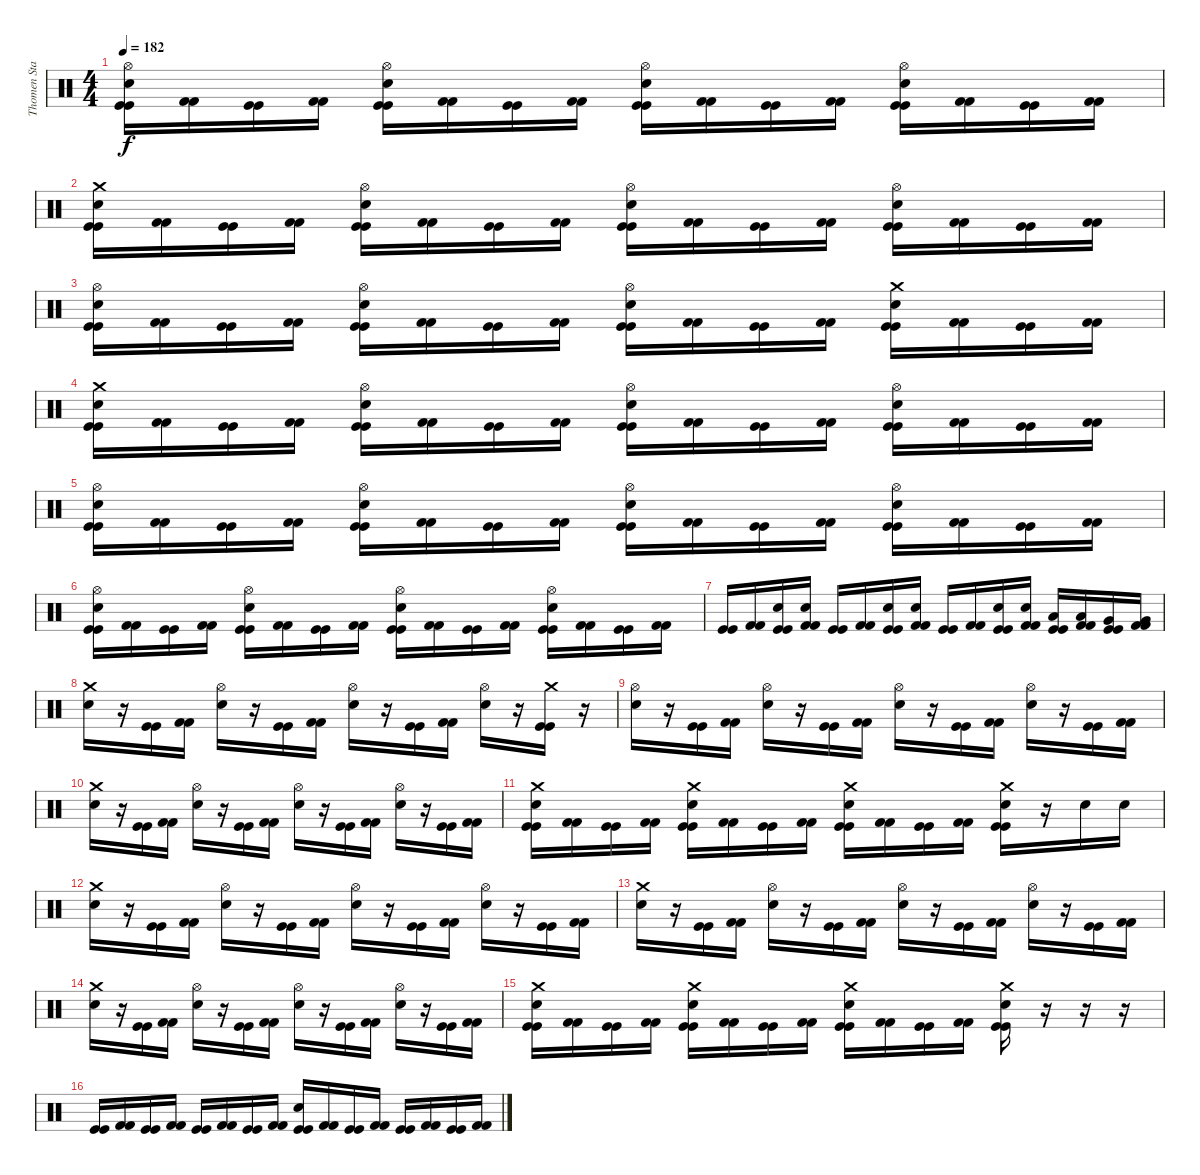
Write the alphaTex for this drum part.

\track ("Thomen Stauch" "Thomen Sta") {instrument percussion}
\staff {score}
\articulation defaults
\ts (4 4)
\tempo 182
\clef neutral
\ks c
("Hi-Hat (open)" "Snare (hit) 2" "Kick (hit)" "Kick (hit)").16{dy f} ("Kick (hit) 2" "Kick (hit) 2").16 ("Kick (hit)" "Kick (hit)").16 ("Kick (hit) 2" "Kick (hit) 2").16 ("Hi-Hat (open)" "Snare (hit) 2" "Kick (hit)" "Kick (hit)").16 ("Kick (hit) 2" "Kick (hit) 2").16 ("Kick (hit)" "Kick (hit)").16 ("Kick (hit) 2" "Kick (hit) 2").16 ("Hi-Hat (open)" "Snare (hit) 2" "Kick (hit)" "Kick (hit)").16 ("Kick (hit) 2" "Kick (hit) 2").16 ("Kick (hit)" "Kick (hit)").16 ("Kick (hit) 2" "Kick (hit) 2").16 ("Hi-Hat (open)" "Snare (hit) 2" "Kick (hit)" "Kick (hit)").16 ("Kick (hit) 2" "Kick (hit) 2").16 ("Kick (hit)" "Kick (hit)").16 ("Kick (hit) 2" "Kick (hit) 2").16 |
("Crash medium (hit)" "Snare (hit) 2" "Kick (hit)" "Kick (hit)").16 ("Kick (hit) 2" "Kick (hit) 2").16 ("Kick (hit)" "Kick (hit)").16 ("Kick (hit) 2" "Kick (hit) 2").16 ("Hi-Hat (open)" "Snare (hit) 2" "Kick (hit)" "Kick (hit)").16 ("Kick (hit) 2" "Kick (hit) 2").16 ("Kick (hit)" "Kick (hit)").16 ("Kick (hit) 2" "Kick (hit) 2").16 ("Hi-Hat (open)" "Snare (hit) 2" "Kick (hit)" "Kick (hit)").16 ("Kick (hit) 2" "Kick (hit) 2").16 ("Kick (hit)" "Kick (hit)").16 ("Kick (hit) 2" "Kick (hit) 2").16 ("Hi-Hat (open)" "Snare (hit) 2" "Kick (hit)" "Kick (hit)").16 ("Kick (hit) 2" "Kick (hit) 2").16 ("Kick (hit)" "Kick (hit)").16 ("Kick (hit) 2" "Kick (hit) 2").16 |
("Hi-Hat (open)" "Snare (hit) 2" "Kick (hit)" "Kick (hit)").16 ("Kick (hit) 2" "Kick (hit) 2").16 ("Kick (hit)" "Kick (hit)").16 ("Kick (hit) 2" "Kick (hit) 2").16 ("Hi-Hat (open)" "Snare (hit) 2" "Kick (hit)" "Kick (hit)").16 ("Kick (hit) 2" "Kick (hit) 2").16 ("Kick (hit)" "Kick (hit)").16 ("Kick (hit) 2" "Kick (hit) 2").16 ("Hi-Hat (open)" "Snare (hit) 2" "Kick (hit)" "Kick (hit)").16 ("Kick (hit) 2" "Kick (hit) 2").16 ("Kick (hit)" "Kick (hit)").16 ("Kick (hit) 2" "Kick (hit) 2").16 ("Crash medium (hit)" "Snare (hit) 2" "Kick (hit)" "Kick (hit)").16 ("Kick (hit) 2" "Kick (hit) 2").16 ("Kick (hit)" "Kick (hit)").16 ("Kick (hit) 2" "Kick (hit) 2").16 |
("Crash medium (hit)" "Snare (hit) 2" "Kick (hit)" "Kick (hit)").16 ("Kick (hit) 2" "Kick (hit) 2").16 ("Kick (hit)" "Kick (hit)").16 ("Kick (hit) 2" "Kick (hit) 2").16 ("Hi-Hat (open)" "Snare (hit) 2" "Kick (hit)" "Kick (hit)").16 ("Kick (hit) 2" "Kick (hit) 2").16 ("Kick (hit)" "Kick (hit)").16 ("Kick (hit) 2" "Kick (hit) 2").16 ("Hi-Hat (open)" "Snare (hit) 2" "Kick (hit)" "Kick (hit)").16 ("Kick (hit) 2" "Kick (hit) 2").16 ("Kick (hit)" "Kick (hit)").16 ("Kick (hit) 2" "Kick (hit) 2").16 ("Hi-Hat (open)" "Snare (hit) 2" "Kick (hit)" "Kick (hit)").16 ("Kick (hit) 2" "Kick (hit) 2").16 ("Kick (hit)" "Kick (hit)").16 ("Kick (hit) 2" "Kick (hit) 2").16 |
("Hi-Hat (open)" "Snare (hit) 2" "Kick (hit)" "Kick (hit)").16 ("Kick (hit) 2" "Kick (hit) 2").16 ("Kick (hit)" "Kick (hit)").16 ("Kick (hit) 2" "Kick (hit) 2").16 ("Hi-Hat (open)" "Snare (hit) 2" "Kick (hit)" "Kick (hit)").16 ("Kick (hit) 2" "Kick (hit) 2").16 ("Kick (hit)" "Kick (hit)").16 ("Kick (hit) 2" "Kick (hit) 2").16 ("Hi-Hat (open)" "Snare (hit) 2" "Kick (hit)" "Kick (hit)").16 ("Kick (hit) 2" "Kick (hit) 2").16 ("Kick (hit)" "Kick (hit)").16 ("Kick (hit) 2" "Kick (hit) 2").16 ("Hi-Hat (open)" "Snare (hit) 2" "Kick (hit)" "Kick (hit)").16 ("Kick (hit) 2" "Kick (hit) 2").16 ("Kick (hit)" "Kick (hit)").16 ("Kick (hit) 2" "Kick (hit) 2").16 |
("Hi-Hat (open)" "Snare (hit) 2" "Kick (hit)" "Kick (hit)").16 ("Kick (hit) 2" "Kick (hit) 2").16 ("Kick (hit)" "Kick (hit)").16 ("Kick (hit) 2" "Kick (hit) 2").16 ("Hi-Hat (open)" "Snare (hit) 2" "Kick (hit)" "Kick (hit)").16 ("Kick (hit) 2" "Kick (hit) 2").16 ("Kick (hit)" "Kick (hit)").16 ("Kick (hit) 2" "Kick (hit) 2").16 ("Hi-Hat (open)" "Snare (hit) 2" "Kick (hit)" "Kick (hit)").16 ("Kick (hit) 2" "Kick (hit) 2").16 ("Kick (hit)" "Kick (hit)").16 ("Kick (hit) 2" "Kick (hit) 2").16 ("Hi-Hat (open)" "Snare (hit) 2" "Kick (hit)" "Kick (hit)").16 ("Kick (hit) 2" "Kick (hit) 2").16 ("Kick (hit)" "Kick (hit)").16 ("Kick (hit) 2" "Kick (hit) 2").16 |
("Kick (hit)" "Kick (hit)").16 ("Kick (hit) 2" "Kick (hit) 2").16 ("Snare (hit) 2" "Kick (hit)" "Kick (hit)").16 ("Snare (hit) 2" "Kick (hit) 2" "Kick (hit) 2").16 ("Kick (hit)" "Kick (hit)").16 ("Kick (hit) 2" "Kick (hit) 2").16 ("Snare (hit) 2" "Kick (hit)" "Kick (hit)").16 ("Snare (hit) 2" "Kick (hit) 2" "Kick (hit) 2").16 ("Kick (hit)" "Kick (hit)").16 ("Kick (hit) 2" "Kick (hit) 2").16 ("Snare (hit) 2" "Kick (hit)" "Kick (hit)").16 ("Snare (hit) 2" "Kick (hit) 2" "Kick (hit) 2").16 ("Low Tom (hit)" "Kick (hit)" "Kick (hit)").16 ("Low Tom (hit)" "Kick (hit) 2" "Kick (hit) 2").16 ("Very Low Tom (hit)" "Kick (hit)" "Kick (hit)").16 ("Very Low Tom (hit)" "Kick (hit) 2" "Kick (hit) 2").16 |
("Crash medium (hit)" "Snare (hit) 2").16 r.16 ("Kick (hit)" "Kick (hit)").16 ("Kick (hit) 2" "Kick (hit) 2").16 ("Hi-Hat (open)" "Snare (hit) 2").16 r.16 ("Kick (hit)" "Kick (hit)").16 ("Kick (hit) 2" "Kick (hit) 2").16 ("Hi-Hat (open)" "Snare (hit) 2").16 r.16 ("Kick (hit)" "Kick (hit)").16 ("Kick (hit) 2" "Kick (hit) 2").16 ("Hi-Hat (open)" "Snare (hit) 2").16 r.16 ("Crash medium (hit)" "Kick (hit)" "Kick (hit)").16 r.16 |
("Hi-Hat (open)" "Snare (hit) 2").16 r.16 ("Kick (hit)" "Kick (hit)").16 ("Kick (hit) 2" "Kick (hit) 2").16 ("Hi-Hat (open)" "Snare (hit) 2").16 r.16 ("Kick (hit)" "Kick (hit)").16 ("Kick (hit) 2" "Kick (hit) 2").16 ("Hi-Hat (open)" "Snare (hit) 2").16 r.16 ("Kick (hit)" "Kick (hit)").16 ("Kick (hit) 2" "Kick (hit) 2").16 ("Hi-Hat (open)" "Snare (hit) 2").16 r.16 ("Kick (hit)" "Kick (hit)").16 ("Kick (hit) 2" "Kick (hit) 2").16 |
("Crash medium (hit)" "Snare (hit) 2").16 r.16 ("Kick (hit)" "Kick (hit)").16 ("Kick (hit) 2" "Kick (hit) 2").16 ("Hi-Hat (open)" "Snare (hit) 2").16 r.16 ("Kick (hit)" "Kick (hit)").16 ("Kick (hit) 2" "Kick (hit) 2").16 ("Hi-Hat (open)" "Snare (hit) 2").16 r.16 ("Kick (hit)" "Kick (hit)").16 ("Kick (hit) 2" "Kick (hit) 2").16 ("Hi-Hat (open)" "Snare (hit) 2").16 r.16 ("Kick (hit)" "Kick (hit)").16 ("Kick (hit) 2" "Kick (hit) 2").16 |
("Crash medium (hit)" "Snare (hit) 2" "Kick (hit)" "Kick (hit)").16 ("Kick (hit) 2" "Kick (hit) 2").16 ("Kick (hit)" "Kick (hit)").16 ("Kick (hit) 2" "Kick (hit) 2").16 ("Crash medium (hit)" "Snare (hit) 2" "Kick (hit)" "Kick (hit)").16 ("Kick (hit) 2" "Kick (hit) 2").16 ("Kick (hit)" "Kick (hit)").16 ("Kick (hit) 2" "Kick (hit) 2").16 ("Crash medium (hit)" "Snare (hit) 2" "Kick (hit)" "Kick (hit)").16 ("Kick (hit) 2" "Kick (hit) 2").16 ("Kick (hit)" "Kick (hit)").16 ("Kick (hit) 2" "Kick (hit) 2").16 ("Crash medium (hit)" "Snare (hit) 2" "Kick (hit)" "Kick (hit)").16 r.16 "Snare (hit) 2".16 "Snare (hit) 2".16 |
("Crash medium (hit)" "Snare (hit) 2").16 r.16 ("Kick (hit)" "Kick (hit)").16 ("Kick (hit) 2" "Kick (hit) 2").16 ("Hi-Hat (open)" "Snare (hit) 2").16 r.16 ("Kick (hit)" "Kick (hit)").16 ("Kick (hit) 2" "Kick (hit) 2").16 ("Hi-Hat (open)" "Snare (hit) 2").16 r.16 ("Kick (hit)" "Kick (hit)").16 ("Kick (hit) 2" "Kick (hit) 2").16 ("Hi-Hat (open)" "Snare (hit) 2").16 r.16 ("Kick (hit)" "Kick (hit)").16 ("Kick (hit) 2" "Kick (hit) 2").16 |
("Crash medium (hit)" "Snare (hit) 2").16 r.16 ("Kick (hit)" "Kick (hit)").16 ("Kick (hit) 2" "Kick (hit) 2").16 ("Hi-Hat (open)" "Snare (hit) 2").16 r.16 ("Kick (hit)" "Kick (hit)").16 ("Kick (hit) 2" "Kick (hit) 2").16 ("Hi-Hat (open)" "Snare (hit) 2").16 r.16 ("Kick (hit)" "Kick (hit)").16 ("Kick (hit) 2" "Kick (hit) 2").16 ("Hi-Hat (open)" "Snare (hit) 2").16 r.16 ("Kick (hit)" "Kick (hit)").16 ("Kick (hit) 2" "Kick (hit) 2").16 |
("Crash medium (hit)" "Snare (hit) 2").16 r.16 ("Kick (hit)" "Kick (hit)").16 ("Kick (hit) 2" "Kick (hit) 2").16 ("Hi-Hat (open)" "Snare (hit) 2").16 r.16 ("Kick (hit)" "Kick (hit)").16 ("Kick (hit) 2" "Kick (hit) 2").16 ("Hi-Hat (open)" "Snare (hit) 2").16 r.16 ("Kick (hit)" "Kick (hit)").16 ("Kick (hit) 2" "Kick (hit) 2").16 ("Hi-Hat (open)" "Snare (hit) 2").16 r.16 ("Kick (hit)" "Kick (hit)").16 ("Kick (hit) 2" "Kick (hit) 2").16 |
("Crash medium (hit)" "Snare (hit) 2" "Kick (hit)" "Kick (hit)").16 ("Kick (hit) 2" "Kick (hit) 2").16 ("Kick (hit)" "Kick (hit)").16 ("Kick (hit) 2" "Kick (hit) 2").16 ("Crash medium (hit)" "Snare (hit) 2" "Kick (hit)" "Kick (hit)").16 ("Kick (hit) 2" "Kick (hit) 2").16 ("Kick (hit)" "Kick (hit)").16 ("Kick (hit) 2" "Kick (hit) 2").16 ("Crash medium (hit)" "Snare (hit) 2" "Kick (hit)" "Kick (hit)").16 ("Kick (hit) 2" "Kick (hit) 2").16 ("Kick (hit)" "Kick (hit)").16 ("Kick (hit) 2" "Kick (hit) 2").16 ("Crash medium (hit)" "Snare (hit) 2" "Kick (hit)" "Kick (hit)").16 r.16 r.16 r.16 |
("Kick (hit)" "Kick (hit)").16 ("Kick (hit) 2" "Kick (hit) 2").16 ("Kick (hit)" "Kick (hit)").16 ("Kick (hit) 2" "Kick (hit) 2").16 ("Kick (hit)" "Kick (hit)").16 ("Kick (hit) 2" "Kick (hit) 2").16 ("Kick (hit)" "Kick (hit)").16 ("Kick (hit) 2" "Kick (hit) 2").16 ("Snare (hit) 2" "Kick (hit)" "Kick (hit)").16 ("Kick (hit) 2" "Kick (hit) 2").16 ("Kick (hit)" "Kick (hit)").16 ("Kick (hit) 2" "Kick (hit) 2").16 ("Kick (hit)" "Kick (hit)").16 ("Kick (hit) 2" "Kick (hit) 2").16 ("Kick (hit)" "Kick (hit)").16 ("Kick (hit) 2" "Kick (hit) 2").16
